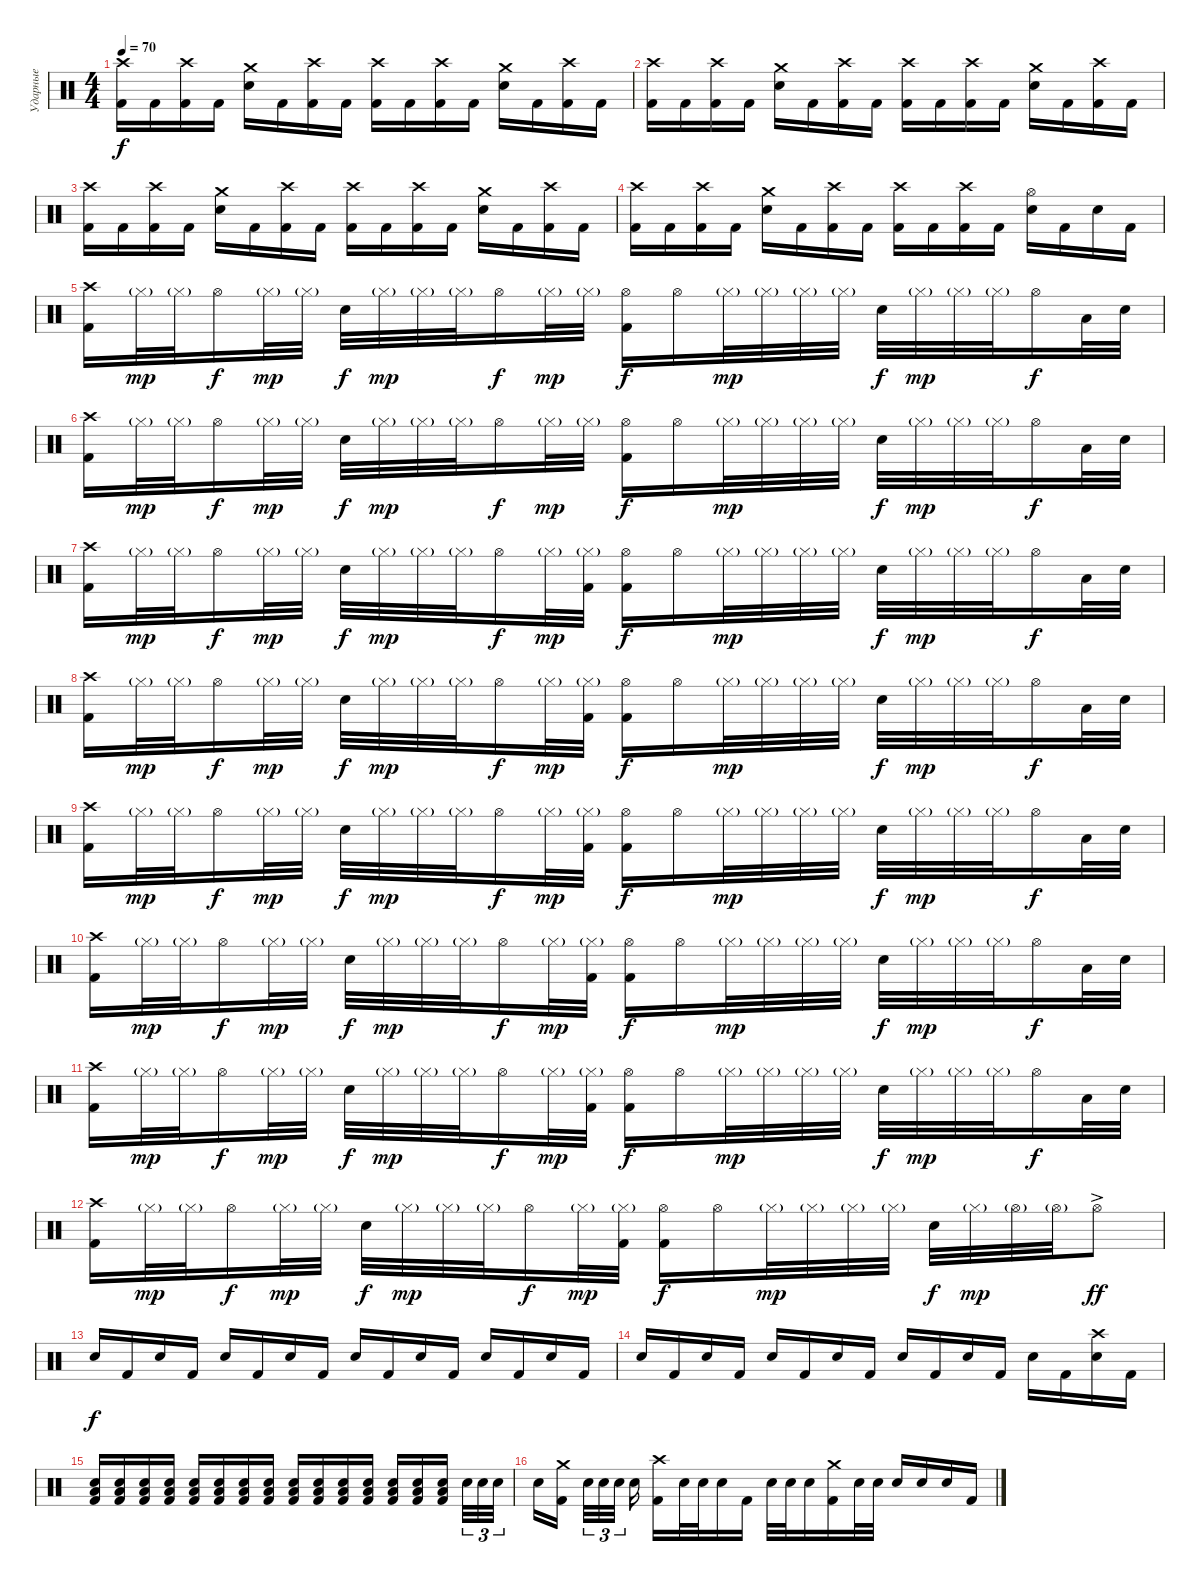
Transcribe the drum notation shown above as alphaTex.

\track ("Ударные" "Ударные") {instrument percussion}
\staff {score}
\articulation defaults
\ts (4 4)
\tempo 70
\clef neutral
\ks c
("Crash high (hit)" "Kick (hit) 2").16{dy f} "Kick (hit) 2".16 ("Crash high (hit)" "Kick (hit) 2").16 "Kick (hit) 2".16 ("Crash medium (hit)" "Electric Snare (hit)").16 "Kick (hit) 2".16 ("Crash high (hit)" "Kick (hit) 2").16 "Kick (hit) 2".16 ("Crash high (hit)" "Kick (hit) 2").16 "Kick (hit) 2".16 ("Crash high (hit)" "Kick (hit) 2").16 "Kick (hit) 2".16 ("Crash medium (hit)" "Electric Snare (hit)").16 "Kick (hit) 2".16 ("Crash high (hit)" "Kick (hit) 2").16 "Kick (hit) 2".16 |
("Crash high (hit)" "Kick (hit) 2").16 "Kick (hit) 2".16 ("Crash high (hit)" "Kick (hit) 2").16 "Kick (hit) 2".16 ("Crash medium (hit)" "Electric Snare (hit)").16 "Kick (hit) 2".16 ("Crash high (hit)" "Kick (hit) 2").16 "Kick (hit) 2".16 ("Crash high (hit)" "Kick (hit) 2").16 "Kick (hit) 2".16 ("Crash high (hit)" "Kick (hit) 2").16 "Kick (hit) 2".16 ("Crash medium (hit)" "Electric Snare (hit)").16 "Kick (hit) 2".16 ("Crash high (hit)" "Kick (hit) 2").16 "Kick (hit) 2".16 |
("Crash high (hit)" "Kick (hit) 2").16 "Kick (hit) 2".16 ("Crash high (hit)" "Kick (hit) 2").16 "Kick (hit) 2".16 ("Crash medium (hit)" "Electric Snare (hit)").16 "Kick (hit) 2".16 ("Crash high (hit)" "Kick (hit) 2").16 "Kick (hit) 2".16 ("Crash high (hit)" "Kick (hit) 2").16 "Kick (hit) 2".16 ("Crash high (hit)" "Kick (hit) 2").16 "Kick (hit) 2".16 ("Crash medium (hit)" "Electric Snare (hit)").16 "Kick (hit) 2".16 ("Crash high (hit)" "Kick (hit) 2").16 "Kick (hit) 2".16 |
("Crash high (hit)" "Kick (hit) 2").16 "Kick (hit) 2".16 ("Crash high (hit)" "Kick (hit) 2").16 "Kick (hit) 2".16 ("Crash medium (hit)" "Electric Snare (hit)").16 "Kick (hit) 2".16 ("Crash high (hit)" "Kick (hit) 2").16 "Kick (hit) 2".16 ("Crash high (hit)" "Kick (hit) 2").16 "Kick (hit) 2".16 ("Crash high (hit)" "Kick (hit) 2").16 "Kick (hit) 2".16 ("Hi-Hat (open)" "Electric Snare (hit)").16 "Kick (hit) 2".16 "Electric Snare (hit)".16 "Kick (hit) 2".16 |
("Crash high (hit)" "Kick (hit) 2").16 "Hi-Hat (closed)"{g}.32{dy mp} "Hi-Hat (closed)"{g}.32 "Hi-Hat (open)".16{dy f} "Hi-Hat (closed)"{g}.32{dy mp} "Hi-Hat (closed)"{g}.32 "Electric Snare (hit)".32{dy f} "Hi-Hat (closed)"{g}.32{dy mp} "Hi-Hat (closed)"{g}.32 "Hi-Hat (closed)"{g}.32 "Hi-Hat (open)".16{dy f} "Hi-Hat (closed)"{g}.32{dy mp} "Hi-Hat (closed)"{g}.32 ("Hi-Hat (open)" "Kick (hit) 2").16{dy f} "Hi-Hat (open)".16 "Hi-Hat (closed)"{g}.32{dy mp} "Hi-Hat (closed)"{g}.32 "Hi-Hat (closed)"{g}.32 "Hi-Hat (closed)"{g}.32 "Electric Snare (hit)".32{dy f} "Hi-Hat (closed)"{g}.32{dy mp} "Hi-Hat (closed)"{g}.32 "Hi-Hat (closed)"{g}.32 "Hi-Hat (open)".16{dy f} "Low Floor Tom (hit)".32 "Electric Snare (hit)".32 |
("Crash high (hit)" "Kick (hit) 2").16 "Hi-Hat (closed)"{g}.32{dy mp} "Hi-Hat (closed)"{g}.32 "Hi-Hat (open)".16{dy f} "Hi-Hat (closed)"{g}.32{dy mp} "Hi-Hat (closed)"{g}.32 "Electric Snare (hit)".32{dy f} "Hi-Hat (closed)"{g}.32{dy mp} "Hi-Hat (closed)"{g}.32 "Hi-Hat (closed)"{g}.32 "Hi-Hat (open)".16{dy f} "Hi-Hat (closed)"{g}.32{dy mp} "Hi-Hat (closed)"{g}.32 ("Hi-Hat (open)" "Kick (hit) 2").16{dy f} "Hi-Hat (open)".16 "Hi-Hat (closed)"{g}.32{dy mp} "Hi-Hat (closed)"{g}.32 "Hi-Hat (closed)"{g}.32 "Hi-Hat (closed)"{g}.32 "Electric Snare (hit)".32{dy f} "Hi-Hat (closed)"{g}.32{dy mp} "Hi-Hat (closed)"{g}.32 "Hi-Hat (closed)"{g}.32 "Hi-Hat (open)".16{dy f} "Low Floor Tom (hit)".32 "Electric Snare (hit)".32 |
("Crash high (hit)" "Kick (hit) 2").16 "Hi-Hat (closed)"{g}.32{dy mp} "Hi-Hat (closed)"{g}.32 "Hi-Hat (open)".16{dy f} "Hi-Hat (closed)"{g}.32{dy mp} "Hi-Hat (closed)"{g}.32 "Electric Snare (hit)".32{dy f} "Hi-Hat (closed)"{g}.32{dy mp} "Hi-Hat (closed)"{g}.32 "Hi-Hat (closed)"{g}.32 "Hi-Hat (open)".16{dy f} "Hi-Hat (closed)"{g}.32{dy mp} ("Hi-Hat (closed)"{g} "Kick (hit) 2").32 ("Hi-Hat (open)" "Kick (hit) 2").16{dy f} "Hi-Hat (open)".16 "Hi-Hat (closed)"{g}.32{dy mp} "Hi-Hat (closed)"{g}.32 "Hi-Hat (closed)"{g}.32 "Hi-Hat (closed)"{g}.32 "Electric Snare (hit)".32{dy f} "Hi-Hat (closed)"{g}.32{dy mp} "Hi-Hat (closed)"{g}.32 "Hi-Hat (closed)"{g}.32 "Hi-Hat (open)".16{dy f} "Low Floor Tom (hit)".32 "Electric Snare (hit)".32 |
("Crash high (hit)" "Kick (hit) 2").16 "Hi-Hat (closed)"{g}.32{dy mp} "Hi-Hat (closed)"{g}.32 "Hi-Hat (open)".16{dy f} "Hi-Hat (closed)"{g}.32{dy mp} "Hi-Hat (closed)"{g}.32 "Electric Snare (hit)".32{dy f} "Hi-Hat (closed)"{g}.32{dy mp} "Hi-Hat (closed)"{g}.32 "Hi-Hat (closed)"{g}.32 "Hi-Hat (open)".16{dy f} "Hi-Hat (closed)"{g}.32{dy mp} ("Hi-Hat (closed)"{g} "Kick (hit) 2").32 ("Hi-Hat (open)" "Kick (hit) 2").16{dy f} "Hi-Hat (open)".16 "Hi-Hat (closed)"{g}.32{dy mp} "Hi-Hat (closed)"{g}.32 "Hi-Hat (closed)"{g}.32 "Hi-Hat (closed)"{g}.32 "Electric Snare (hit)".32{dy f} "Hi-Hat (closed)"{g}.32{dy mp} "Hi-Hat (closed)"{g}.32 "Hi-Hat (closed)"{g}.32 "Hi-Hat (open)".16{dy f} "Low Floor Tom (hit)".32 "Electric Snare (hit)".32 |
("Crash high (hit)" "Kick (hit) 2").16 "Hi-Hat (closed)"{g}.32{dy mp} "Hi-Hat (closed)"{g}.32 "Hi-Hat (open)".16{dy f} "Hi-Hat (closed)"{g}.32{dy mp} "Hi-Hat (closed)"{g}.32 "Electric Snare (hit)".32{dy f} "Hi-Hat (closed)"{g}.32{dy mp} "Hi-Hat (closed)"{g}.32 "Hi-Hat (closed)"{g}.32 "Hi-Hat (open)".16{dy f} "Hi-Hat (closed)"{g}.32{dy mp} ("Hi-Hat (closed)"{g} "Kick (hit) 2").32 ("Hi-Hat (open)" "Kick (hit) 2").16{dy f} "Hi-Hat (open)".16 "Hi-Hat (closed)"{g}.32{dy mp} "Hi-Hat (closed)"{g}.32 "Hi-Hat (closed)"{g}.32 "Hi-Hat (closed)"{g}.32 "Electric Snare (hit)".32{dy f} "Hi-Hat (closed)"{g}.32{dy mp} "Hi-Hat (closed)"{g}.32 "Hi-Hat (closed)"{g}.32 "Hi-Hat (open)".16{dy f} "Low Floor Tom (hit)".32 "Electric Snare (hit)".32 |
("Crash high (hit)" "Kick (hit) 2").16 "Hi-Hat (closed)"{g}.32{dy mp} "Hi-Hat (closed)"{g}.32 "Hi-Hat (open)".16{dy f} "Hi-Hat (closed)"{g}.32{dy mp} "Hi-Hat (closed)"{g}.32 "Electric Snare (hit)".32{dy f} "Hi-Hat (closed)"{g}.32{dy mp} "Hi-Hat (closed)"{g}.32 "Hi-Hat (closed)"{g}.32 "Hi-Hat (open)".16{dy f} "Hi-Hat (closed)"{g}.32{dy mp} ("Hi-Hat (closed)"{g} "Kick (hit) 2").32 ("Hi-Hat (open)" "Kick (hit) 2").16{dy f} "Hi-Hat (open)".16 "Hi-Hat (closed)"{g}.32{dy mp} "Hi-Hat (closed)"{g}.32 "Hi-Hat (closed)"{g}.32 "Hi-Hat (closed)"{g}.32 "Electric Snare (hit)".32{dy f} "Hi-Hat (closed)"{g}.32{dy mp} "Hi-Hat (closed)"{g}.32 "Hi-Hat (closed)"{g}.32 "Hi-Hat (open)".16{dy f} "Low Floor Tom (hit)".32 "Electric Snare (hit)".32 |
("Crash high (hit)" "Kick (hit) 2").16 "Hi-Hat (closed)"{g}.32{dy mp} "Hi-Hat (closed)"{g}.32 "Hi-Hat (open)".16{dy f} "Hi-Hat (closed)"{g}.32{dy mp} "Hi-Hat (closed)"{g}.32 "Electric Snare (hit)".32{dy f} "Hi-Hat (closed)"{g}.32{dy mp} "Hi-Hat (closed)"{g}.32 "Hi-Hat (closed)"{g}.32 "Hi-Hat (open)".16{dy f} "Hi-Hat (closed)"{g}.32{dy mp} ("Hi-Hat (closed)"{g} "Kick (hit) 2").32 ("Hi-Hat (open)" "Kick (hit) 2").16{dy f} "Hi-Hat (open)".16 "Hi-Hat (closed)"{g}.32{dy mp} "Hi-Hat (closed)"{g}.32 "Hi-Hat (closed)"{g}.32 "Hi-Hat (closed)"{g}.32 "Electric Snare (hit)".32{dy f} "Hi-Hat (closed)"{g}.32{dy mp} "Hi-Hat (closed)"{g}.32 "Hi-Hat (closed)"{g}.32 "Hi-Hat (open)".16{dy f} "Low Floor Tom (hit)".32 "Electric Snare (hit)".32 |
("Crash high (hit)" "Kick (hit) 2").16 "Hi-Hat (closed)"{g}.32{dy mp} "Hi-Hat (closed)"{g}.32 "Hi-Hat (open)".16{dy f} "Hi-Hat (closed)"{g}.32{dy mp} "Hi-Hat (closed)"{g}.32 "Electric Snare (hit)".32{dy f} "Hi-Hat (closed)"{g}.32{dy mp} "Hi-Hat (closed)"{g}.32 "Hi-Hat (closed)"{g}.32 "Hi-Hat (open)".16{dy f} "Hi-Hat (closed)"{g}.32{dy mp} ("Hi-Hat (closed)"{g} "Kick (hit) 2").32 ("Hi-Hat (open)" "Kick (hit) 2").16{dy f} "Hi-Hat (open)".16 "Hi-Hat (closed)"{g}.32{dy mp} "Hi-Hat (closed)"{g}.32 "Hi-Hat (closed)"{g}.32 "Hi-Hat (closed)"{g}.32 "Electric Snare (hit)".32{dy f} "Hi-Hat (closed)"{g}.32{dy mp} "Hi-Hat (open)"{g}.32 "Hi-Hat (open)"{g}.32 "Hi-Hat (open)"{ac}.8{dy ff} |
"Electric Snare (hit)".16{dy f} "Kick (hit) 2".16 "Electric Snare (hit)".16 "Kick (hit) 2".16 "Electric Snare (hit)".16 "Kick (hit) 2".16 "Electric Snare (hit)".16 "Kick (hit) 2".16 "Electric Snare (hit)".16 "Kick (hit) 2".16 "Electric Snare (hit)".16 "Kick (hit) 2".16 "Electric Snare (hit)".16 "Kick (hit) 2".16 "Electric Snare (hit)".16 "Kick (hit) 2".16 |
"Electric Snare (hit)".16 "Kick (hit) 2".16 "Electric Snare (hit)".16 "Kick (hit) 2".16 "Electric Snare (hit)".16 "Kick (hit) 2".16 "Electric Snare (hit)".16 "Kick (hit) 2".16 "Electric Snare (hit)".16 "Kick (hit) 2".16 "Electric Snare (hit)".16 "Kick (hit) 2".16 "Electric Snare (hit)".16 "Kick (hit) 2".16 ("Crash high (hit)" "Electric Snare (hit)").16 "Kick (hit) 2".16 |
("Low Floor Tom (hit)" "Electric Snare (hit)" "Kick (hit) 2").16{volume 5} ("Low Floor Tom (hit)" "Electric Snare (hit)" "Kick (hit) 2").16{volume 12} ("Low Floor Tom (hit)" "Electric Snare (hit)" "Kick (hit) 2").16 ("Low Floor Tom (hit)" "Electric Snare (hit)" "Kick (hit) 2").16 ("Low Floor Tom (hit)" "Electric Snare (hit)" "Kick (hit) 2").16 ("Low Floor Tom (hit)" "Electric Snare (hit)" "Kick (hit) 2").16 ("Low Floor Tom (hit)" "Electric Snare (hit)" "Kick (hit) 2").16 ("Low Floor Tom (hit)" "Electric Snare (hit)" "Kick (hit) 2").16 ("Low Floor Tom (hit)" "Electric Snare (hit)" "Kick (hit) 2").16 ("Low Floor Tom (hit)" "Electric Snare (hit)" "Kick (hit) 2").16 ("Low Floor Tom (hit)" "Electric Snare (hit)" "Kick (hit) 2").16 ("Low Floor Tom (hit)" "Electric Snare (hit)" "Kick (hit) 2").16 ("Low Floor Tom (hit)" "Electric Snare (hit)" "Kick (hit) 2").16 ("Low Floor Tom (hit)" "Electric Snare (hit)" "Kick (hit) 2").16 ("Low Floor Tom (hit)" "Electric Snare (hit)" "Kick (hit) 2").16{beam splitsecondary} "Electric Snare (hit)".32{tu (3 2)} "Electric Snare (hit)".32{tu (3 2)} "Electric Snare (hit)".32{tu (3 2)} |
"Electric Snare (hit)".16 ("Crash medium (hit)" "Kick (hit) 2").16{beam splitsecondary} "Electric Snare (hit)".32{tu (3 2)} "Electric Snare (hit)".32{tu (3 2)} "Electric Snare (hit)".32{tu (3 2) beam splitsecondary} "Electric Snare (hit)".16 ("Crash high (hit)" "Kick (hit) 2").16 "Electric Snare (hit)".32 "Electric Snare (hit)".32 "Electric Snare (hit)".16 "Kick (hit) 2".16 "Electric Snare (hit)".32 "Electric Snare (hit)".32 "Electric Snare (hit)".16 ("Crash medium (hit)" "Kick (hit) 2").16 "Electric Snare (hit)".32 "Electric Snare (hit)".32 "Electric Snare (hit)".16 "Electric Snare (hit)".16 "Electric Snare (hit)".16 "Kick (hit) 2".16
